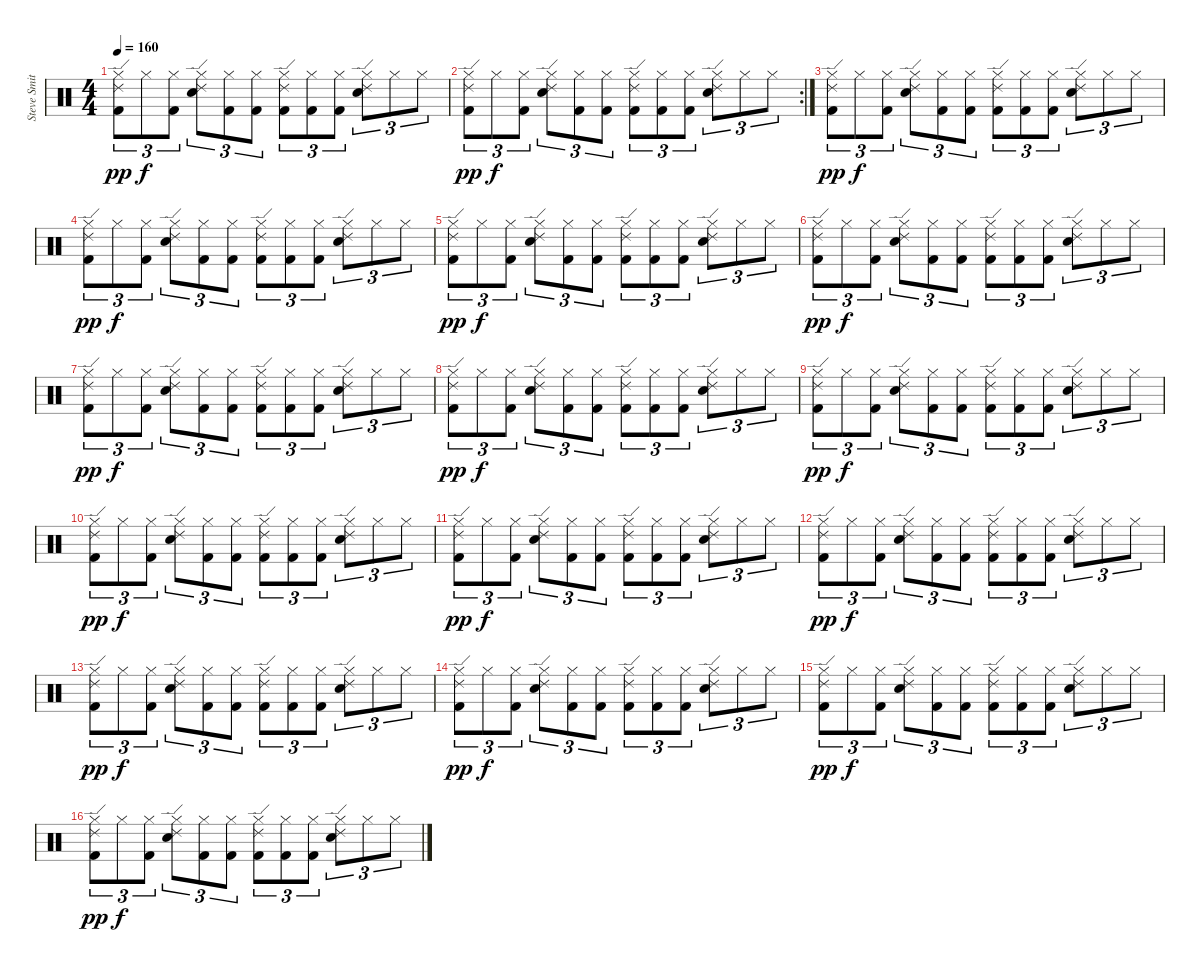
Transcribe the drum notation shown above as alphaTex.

\track ("Steve Smith" "Steve Smit") {instrument percussion}
\staff {score}
\articulation defaults
\ts (4 4)
\tempo 160
\clef neutral
\ks c
("Hi-Hat (closed)" "Ride (edge) 2" "Kick (hit) 2").8{tu (3 2) dy pp} "Hi-Hat (closed)".8{tu (3 2) dy f} ("Hi-Hat (closed)" "Kick (hit) 2").8{tu (3 2)} ("Hi-Hat (closed)" "Ride (edge) 2" "Snare (hit) 2").8{tu (3 2)} ("Hi-Hat (closed)" "Kick (hit) 2").8{tu (3 2)} ("Hi-Hat (closed)" "Kick (hit) 2").8{tu (3 2)} ("Hi-Hat (closed)" "Ride (edge) 2" "Kick (hit) 2").8{tu (3 2)} ("Hi-Hat (closed)" "Kick (hit) 2").8{tu (3 2)} ("Hi-Hat (closed)" "Kick (hit) 2").8{tu (3 2)} ("Hi-Hat (closed)" "Ride (edge) 2" "Snare (hit) 2").8{tu (3 2)} "Hi-Hat (closed)".8{tu (3 2)} "Hi-Hat (closed)".8{tu (3 2)} |
\rc 2
("Hi-Hat (closed)" "Ride (edge) 2" "Kick (hit) 2").8{tu (3 2) dy pp} "Hi-Hat (closed)".8{tu (3 2) dy f} ("Hi-Hat (closed)" "Kick (hit) 2").8{tu (3 2)} ("Hi-Hat (closed)" "Ride (edge) 2" "Snare (hit) 2").8{tu (3 2)} ("Hi-Hat (closed)" "Kick (hit) 2").8{tu (3 2)} ("Hi-Hat (closed)" "Kick (hit) 2").8{tu (3 2)} ("Hi-Hat (closed)" "Ride (edge) 2" "Kick (hit) 2").8{tu (3 2)} ("Hi-Hat (closed)" "Kick (hit) 2").8{tu (3 2)} ("Hi-Hat (closed)" "Kick (hit) 2").8{tu (3 2)} ("Hi-Hat (closed)" "Ride (edge) 2" "Snare (hit) 2").8{tu (3 2)} "Hi-Hat (closed)".8{tu (3 2)} "Hi-Hat (closed)".8{tu (3 2)} |
("Hi-Hat (closed)" "Ride (edge) 2" "Kick (hit) 2").8{tu (3 2) dy pp} "Hi-Hat (closed)".8{tu (3 2) dy f} ("Hi-Hat (closed)" "Kick (hit) 2").8{tu (3 2)} ("Hi-Hat (closed)" "Ride (edge) 2" "Snare (hit) 2").8{tu (3 2)} ("Hi-Hat (closed)" "Kick (hit) 2").8{tu (3 2)} ("Hi-Hat (closed)" "Kick (hit) 2").8{tu (3 2)} ("Hi-Hat (closed)" "Ride (edge) 2" "Kick (hit) 2").8{tu (3 2)} ("Hi-Hat (closed)" "Kick (hit) 2").8{tu (3 2)} ("Hi-Hat (closed)" "Kick (hit) 2").8{tu (3 2)} ("Hi-Hat (closed)" "Ride (edge) 2" "Snare (hit) 2").8{tu (3 2)} "Hi-Hat (closed)".8{tu (3 2)} "Hi-Hat (closed)".8{tu (3 2)} |
("Hi-Hat (closed)" "Ride (edge) 2" "Kick (hit) 2").8{tu (3 2) dy pp} "Hi-Hat (closed)".8{tu (3 2) dy f} ("Hi-Hat (closed)" "Kick (hit) 2").8{tu (3 2)} ("Hi-Hat (closed)" "Ride (edge) 2" "Snare (hit) 2").8{tu (3 2)} ("Hi-Hat (closed)" "Kick (hit) 2").8{tu (3 2)} ("Hi-Hat (closed)" "Kick (hit) 2").8{tu (3 2)} ("Hi-Hat (closed)" "Ride (edge) 2" "Kick (hit) 2").8{tu (3 2)} ("Hi-Hat (closed)" "Kick (hit) 2").8{tu (3 2)} ("Hi-Hat (closed)" "Kick (hit) 2").8{tu (3 2)} ("Hi-Hat (closed)" "Ride (edge) 2" "Snare (hit) 2").8{tu (3 2)} "Hi-Hat (closed)".8{tu (3 2)} "Hi-Hat (closed)".8{tu (3 2)} |
("Hi-Hat (closed)" "Ride (edge) 2" "Kick (hit) 2").8{tu (3 2) dy pp} "Hi-Hat (closed)".8{tu (3 2) dy f} ("Hi-Hat (closed)" "Kick (hit) 2").8{tu (3 2)} ("Hi-Hat (closed)" "Ride (edge) 2" "Snare (hit) 2").8{tu (3 2)} ("Hi-Hat (closed)" "Kick (hit) 2").8{tu (3 2)} ("Hi-Hat (closed)" "Kick (hit) 2").8{tu (3 2)} ("Hi-Hat (closed)" "Ride (edge) 2" "Kick (hit) 2").8{tu (3 2)} ("Hi-Hat (closed)" "Kick (hit) 2").8{tu (3 2)} ("Hi-Hat (closed)" "Kick (hit) 2").8{tu (3 2)} ("Hi-Hat (closed)" "Ride (edge) 2" "Snare (hit) 2").8{tu (3 2)} "Hi-Hat (closed)".8{tu (3 2)} "Hi-Hat (closed)".8{tu (3 2)} |
("Hi-Hat (closed)" "Ride (edge) 2" "Kick (hit) 2").8{tu (3 2) dy pp} "Hi-Hat (closed)".8{tu (3 2) dy f} ("Hi-Hat (closed)" "Kick (hit) 2").8{tu (3 2)} ("Hi-Hat (closed)" "Ride (edge) 2" "Snare (hit) 2").8{tu (3 2)} ("Hi-Hat (closed)" "Kick (hit) 2").8{tu (3 2)} ("Hi-Hat (closed)" "Kick (hit) 2").8{tu (3 2)} ("Hi-Hat (closed)" "Ride (edge) 2" "Kick (hit) 2").8{tu (3 2)} ("Hi-Hat (closed)" "Kick (hit) 2").8{tu (3 2)} ("Hi-Hat (closed)" "Kick (hit) 2").8{tu (3 2)} ("Hi-Hat (closed)" "Ride (edge) 2" "Snare (hit) 2").8{tu (3 2)} "Hi-Hat (closed)".8{tu (3 2)} "Hi-Hat (closed)".8{tu (3 2)} |
("Hi-Hat (closed)" "Ride (edge) 2" "Kick (hit) 2").8{tu (3 2) dy pp} "Hi-Hat (closed)".8{tu (3 2) dy f} ("Hi-Hat (closed)" "Kick (hit) 2").8{tu (3 2)} ("Hi-Hat (closed)" "Ride (edge) 2" "Snare (hit) 2").8{tu (3 2)} ("Hi-Hat (closed)" "Kick (hit) 2").8{tu (3 2)} ("Hi-Hat (closed)" "Kick (hit) 2").8{tu (3 2)} ("Hi-Hat (closed)" "Ride (edge) 2" "Kick (hit) 2").8{tu (3 2)} ("Hi-Hat (closed)" "Kick (hit) 2").8{tu (3 2)} ("Hi-Hat (closed)" "Kick (hit) 2").8{tu (3 2)} ("Hi-Hat (closed)" "Ride (edge) 2" "Snare (hit) 2").8{tu (3 2)} "Hi-Hat (closed)".8{tu (3 2)} "Hi-Hat (closed)".8{tu (3 2)} |
("Hi-Hat (closed)" "Ride (edge) 2" "Kick (hit) 2").8{tu (3 2) dy pp} "Hi-Hat (closed)".8{tu (3 2) dy f} ("Hi-Hat (closed)" "Kick (hit) 2").8{tu (3 2)} ("Hi-Hat (closed)" "Ride (edge) 2" "Snare (hit) 2").8{tu (3 2)} ("Hi-Hat (closed)" "Kick (hit) 2").8{tu (3 2)} ("Hi-Hat (closed)" "Kick (hit) 2").8{tu (3 2)} ("Hi-Hat (closed)" "Ride (edge) 2" "Kick (hit) 2").8{tu (3 2)} ("Hi-Hat (closed)" "Kick (hit) 2").8{tu (3 2)} ("Hi-Hat (closed)" "Kick (hit) 2").8{tu (3 2)} ("Hi-Hat (closed)" "Ride (edge) 2" "Snare (hit) 2").8{tu (3 2)} "Hi-Hat (closed)".8{tu (3 2)} "Hi-Hat (closed)".8{tu (3 2)} |
("Hi-Hat (closed)" "Ride (edge) 2" "Kick (hit) 2").8{tu (3 2) dy pp} "Hi-Hat (closed)".8{tu (3 2) dy f} ("Hi-Hat (closed)" "Kick (hit) 2").8{tu (3 2)} ("Hi-Hat (closed)" "Ride (edge) 2" "Snare (hit) 2").8{tu (3 2)} ("Hi-Hat (closed)" "Kick (hit) 2").8{tu (3 2)} ("Hi-Hat (closed)" "Kick (hit) 2").8{tu (3 2)} ("Hi-Hat (closed)" "Ride (edge) 2" "Kick (hit) 2").8{tu (3 2)} ("Hi-Hat (closed)" "Kick (hit) 2").8{tu (3 2)} ("Hi-Hat (closed)" "Kick (hit) 2").8{tu (3 2)} ("Hi-Hat (closed)" "Ride (edge) 2" "Snare (hit) 2").8{tu (3 2)} "Hi-Hat (closed)".8{tu (3 2)} "Hi-Hat (closed)".8{tu (3 2)} |
("Hi-Hat (closed)" "Ride (edge) 2" "Kick (hit) 2").8{tu (3 2) dy pp} "Hi-Hat (closed)".8{tu (3 2) dy f} ("Hi-Hat (closed)" "Kick (hit) 2").8{tu (3 2)} ("Hi-Hat (closed)" "Ride (edge) 2" "Snare (hit) 2").8{tu (3 2)} ("Hi-Hat (closed)" "Kick (hit) 2").8{tu (3 2)} ("Hi-Hat (closed)" "Kick (hit) 2").8{tu (3 2)} ("Hi-Hat (closed)" "Ride (edge) 2" "Kick (hit) 2").8{tu (3 2)} ("Hi-Hat (closed)" "Kick (hit) 2").8{tu (3 2)} ("Hi-Hat (closed)" "Kick (hit) 2").8{tu (3 2)} ("Hi-Hat (closed)" "Ride (edge) 2" "Snare (hit) 2").8{tu (3 2)} "Hi-Hat (closed)".8{tu (3 2)} "Hi-Hat (closed)".8{tu (3 2)} |
("Hi-Hat (closed)" "Ride (edge) 2" "Kick (hit) 2").8{tu (3 2) dy pp} "Hi-Hat (closed)".8{tu (3 2) dy f} ("Hi-Hat (closed)" "Kick (hit) 2").8{tu (3 2)} ("Hi-Hat (closed)" "Ride (edge) 2" "Snare (hit) 2").8{tu (3 2)} ("Hi-Hat (closed)" "Kick (hit) 2").8{tu (3 2)} ("Hi-Hat (closed)" "Kick (hit) 2").8{tu (3 2)} ("Hi-Hat (closed)" "Ride (edge) 2" "Kick (hit) 2").8{tu (3 2)} ("Hi-Hat (closed)" "Kick (hit) 2").8{tu (3 2)} ("Hi-Hat (closed)" "Kick (hit) 2").8{tu (3 2)} ("Hi-Hat (closed)" "Ride (edge) 2" "Snare (hit) 2").8{tu (3 2)} "Hi-Hat (closed)".8{tu (3 2)} "Hi-Hat (closed)".8{tu (3 2)} |
("Hi-Hat (closed)" "Ride (edge) 2" "Kick (hit) 2").8{tu (3 2) dy pp} "Hi-Hat (closed)".8{tu (3 2) dy f} ("Hi-Hat (closed)" "Kick (hit) 2").8{tu (3 2)} ("Hi-Hat (closed)" "Ride (edge) 2" "Snare (hit) 2").8{tu (3 2)} ("Hi-Hat (closed)" "Kick (hit) 2").8{tu (3 2)} ("Hi-Hat (closed)" "Kick (hit) 2").8{tu (3 2)} ("Hi-Hat (closed)" "Ride (edge) 2" "Kick (hit) 2").8{tu (3 2)} ("Hi-Hat (closed)" "Kick (hit) 2").8{tu (3 2)} ("Hi-Hat (closed)" "Kick (hit) 2").8{tu (3 2)} ("Hi-Hat (closed)" "Ride (edge) 2" "Snare (hit) 2").8{tu (3 2)} "Hi-Hat (closed)".8{tu (3 2)} "Hi-Hat (closed)".8{tu (3 2)} |
("Hi-Hat (closed)" "Ride (edge) 2" "Kick (hit) 2").8{tu (3 2) dy pp} "Hi-Hat (closed)".8{tu (3 2) dy f} ("Hi-Hat (closed)" "Kick (hit) 2").8{tu (3 2)} ("Hi-Hat (closed)" "Ride (edge) 2" "Snare (hit) 2").8{tu (3 2)} ("Hi-Hat (closed)" "Kick (hit) 2").8{tu (3 2)} ("Hi-Hat (closed)" "Kick (hit) 2").8{tu (3 2)} ("Hi-Hat (closed)" "Ride (edge) 2" "Kick (hit) 2").8{tu (3 2)} ("Hi-Hat (closed)" "Kick (hit) 2").8{tu (3 2)} ("Hi-Hat (closed)" "Kick (hit) 2").8{tu (3 2)} ("Hi-Hat (closed)" "Ride (edge) 2" "Snare (hit) 2").8{tu (3 2)} "Hi-Hat (closed)".8{tu (3 2)} "Hi-Hat (closed)".8{tu (3 2)} |
("Hi-Hat (closed)" "Ride (edge) 2" "Kick (hit) 2").8{tu (3 2) dy pp} "Hi-Hat (closed)".8{tu (3 2) dy f} ("Hi-Hat (closed)" "Kick (hit) 2").8{tu (3 2)} ("Hi-Hat (closed)" "Ride (edge) 2" "Snare (hit) 2").8{tu (3 2)} ("Hi-Hat (closed)" "Kick (hit) 2").8{tu (3 2)} ("Hi-Hat (closed)" "Kick (hit) 2").8{tu (3 2)} ("Hi-Hat (closed)" "Ride (edge) 2" "Kick (hit) 2").8{tu (3 2)} ("Hi-Hat (closed)" "Kick (hit) 2").8{tu (3 2)} ("Hi-Hat (closed)" "Kick (hit) 2").8{tu (3 2)} ("Hi-Hat (closed)" "Ride (edge) 2" "Snare (hit) 2").8{tu (3 2)} "Hi-Hat (closed)".8{tu (3 2)} "Hi-Hat (closed)".8{tu (3 2)} |
("Hi-Hat (closed)" "Ride (edge) 2" "Kick (hit) 2").8{tu (3 2) dy pp} "Hi-Hat (closed)".8{tu (3 2) dy f} ("Hi-Hat (closed)" "Kick (hit) 2").8{tu (3 2)} ("Hi-Hat (closed)" "Ride (edge) 2" "Snare (hit) 2").8{tu (3 2)} ("Hi-Hat (closed)" "Kick (hit) 2").8{tu (3 2)} ("Hi-Hat (closed)" "Kick (hit) 2").8{tu (3 2)} ("Hi-Hat (closed)" "Ride (edge) 2" "Kick (hit) 2").8{tu (3 2)} ("Hi-Hat (closed)" "Kick (hit) 2").8{tu (3 2)} ("Hi-Hat (closed)" "Kick (hit) 2").8{tu (3 2)} ("Hi-Hat (closed)" "Ride (edge) 2" "Snare (hit) 2").8{tu (3 2)} "Hi-Hat (closed)".8{tu (3 2)} "Hi-Hat (closed)".8{tu (3 2)} |
("Hi-Hat (closed)" "Ride (edge) 2" "Kick (hit) 2").8{tu (3 2) dy pp} "Hi-Hat (closed)".8{tu (3 2) dy f} ("Hi-Hat (closed)" "Kick (hit) 2").8{tu (3 2)} ("Hi-Hat (closed)" "Ride (edge) 2" "Snare (hit) 2").8{tu (3 2)} ("Hi-Hat (closed)" "Kick (hit) 2").8{tu (3 2)} ("Hi-Hat (closed)" "Kick (hit) 2").8{tu (3 2)} ("Hi-Hat (closed)" "Ride (edge) 2" "Kick (hit) 2").8{tu (3 2)} ("Hi-Hat (closed)" "Kick (hit) 2").8{tu (3 2)} ("Hi-Hat (closed)" "Kick (hit) 2").8{tu (3 2)} ("Hi-Hat (closed)" "Ride (edge) 2" "Snare (hit) 2").8{tu (3 2)} "Hi-Hat (closed)".8{tu (3 2)} "Hi-Hat (closed)".8{tu (3 2)}
